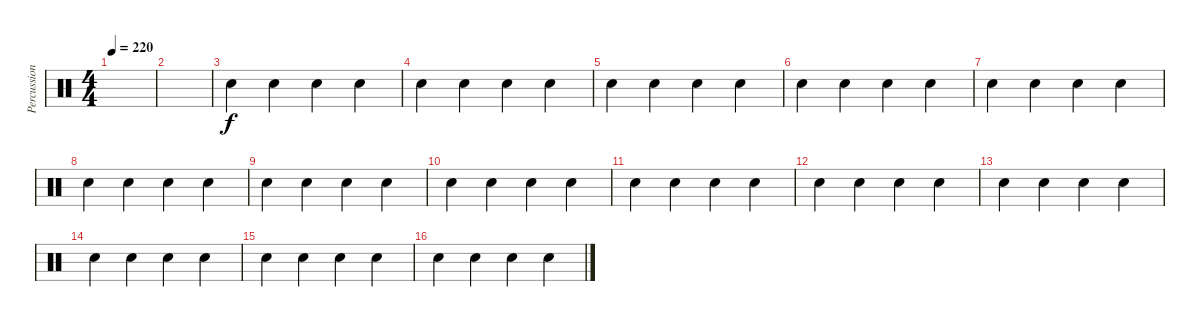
\track ("Percussion" "Percussion") {instrument percussion}
\staff {score}
\articulation defaults
\ts (4 4)
\tempo 220
\clef neutral
\ks c
|
|
"Snare (hit) 2".4 "Snare (hit) 2".4 "Snare (hit) 2".4 "Snare (hit) 2".4 |
"Snare (hit) 2".4 "Snare (hit) 2".4 "Snare (hit) 2".4 "Snare (hit) 2".4 |
"Snare (hit) 2".4 "Snare (hit) 2".4 "Snare (hit) 2".4 "Snare (hit) 2".4 |
"Snare (hit) 2".4 "Snare (hit) 2".4 "Snare (hit) 2".4 "Snare (hit) 2".4 |
"Snare (hit) 2".4 "Snare (hit) 2".4 "Snare (hit) 2".4 "Snare (hit) 2".4 |
"Snare (hit) 2".4 "Snare (hit) 2".4 "Snare (hit) 2".4 "Snare (hit) 2".4 |
"Snare (hit) 2".4 "Snare (hit) 2".4 "Snare (hit) 2".4 "Snare (hit) 2".4 |
"Snare (hit) 2".4 "Snare (hit) 2".4 "Snare (hit) 2".4 "Snare (hit) 2".4 |
"Snare (hit) 2".4 "Snare (hit) 2".4 "Snare (hit) 2".4 "Snare (hit) 2".4 |
"Snare (hit) 2".4 "Snare (hit) 2".4 "Snare (hit) 2".4 "Snare (hit) 2".4 |
"Snare (hit) 2".4 "Snare (hit) 2".4 "Snare (hit) 2".4 "Snare (hit) 2".4 |
"Snare (hit) 2".4 "Snare (hit) 2".4 "Snare (hit) 2".4 "Snare (hit) 2".4 |
"Snare (hit) 2".4 "Snare (hit) 2".4 "Snare (hit) 2".4 "Snare (hit) 2".4 |
"Snare (hit) 2".4 "Snare (hit) 2".4 "Snare (hit) 2".4 "Snare (hit) 2".4
